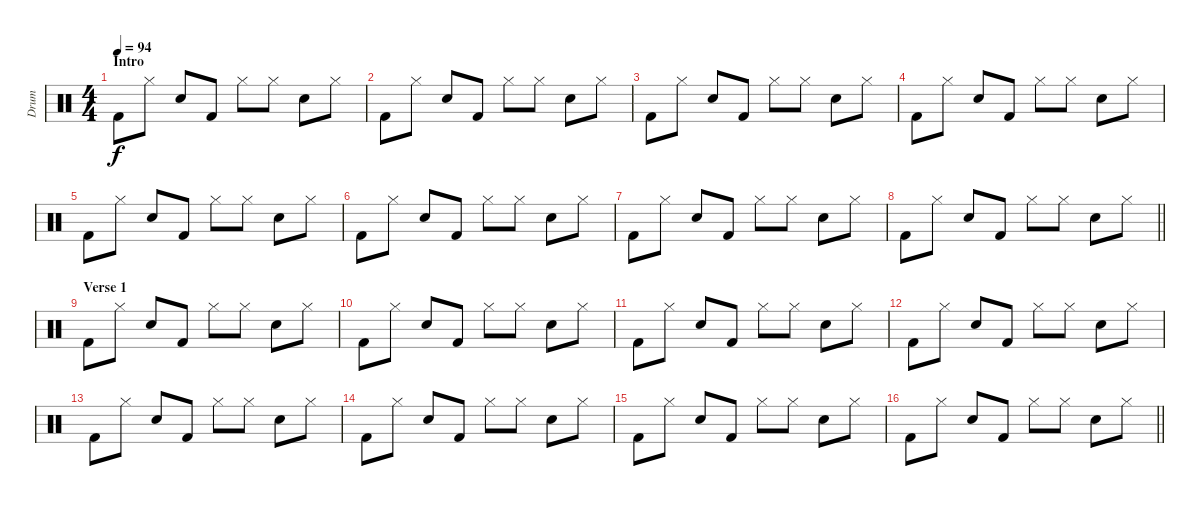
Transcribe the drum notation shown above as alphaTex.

\track ("Drum" "Drum") {instrument percussion}
\staff {score}
\articulation defaults
\ts (4 4)
\section ("" "Intro")
\tempo 94
\clef neutral
\ks c "Kick (hit) 2".8{dy f} "Hi-Hat (closed)".8 "Electric Snare (hit)".8 "Kick (hit) 2".8 "Hi-Hat (closed)".8 "Hi-Hat (closed)".8 "Electric Snare (hit)".8 "Hi-Hat (closed)".8
|
"Kick (hit) 2".8 "Hi-Hat (closed)".8 "Electric Snare (hit)".8 "Kick (hit) 2".8 "Hi-Hat (closed)".8 "Hi-Hat (closed)".8 "Electric Snare (hit)".8 "Hi-Hat (closed)".8 |
"Kick (hit) 2".8 "Hi-Hat (closed)".8 "Electric Snare (hit)".8 "Kick (hit) 2".8 "Hi-Hat (closed)".8 "Hi-Hat (closed)".8 "Electric Snare (hit)".8 "Hi-Hat (closed)".8 |
"Kick (hit) 2".8 "Hi-Hat (closed)".8 "Electric Snare (hit)".8 "Kick (hit) 2".8 "Hi-Hat (closed)".8 "Hi-Hat (closed)".8 "Electric Snare (hit)".8 "Hi-Hat (closed)".8 |
"Kick (hit) 2".8 "Hi-Hat (closed)".8 "Electric Snare (hit)".8 "Kick (hit) 2".8 "Hi-Hat (closed)".8 "Hi-Hat (closed)".8 "Electric Snare (hit)".8 "Hi-Hat (closed)".8 |
"Kick (hit) 2".8 "Hi-Hat (closed)".8 "Electric Snare (hit)".8 "Kick (hit) 2".8 "Hi-Hat (closed)".8 "Hi-Hat (closed)".8 "Electric Snare (hit)".8 "Hi-Hat (closed)".8 |
"Kick (hit) 2".8 "Hi-Hat (closed)".8 "Electric Snare (hit)".8 "Kick (hit) 2".8 "Hi-Hat (closed)".8 "Hi-Hat (closed)".8 "Electric Snare (hit)".8 "Hi-Hat (closed)".8 |
\barLineRight lightlight "Kick (hit) 2".8 "Hi-Hat (closed)".8 "Electric Snare (hit)".8 "Kick (hit) 2".8 "Hi-Hat (closed)".8 "Hi-Hat (closed)".8 "Electric Snare (hit)".8 "Hi-Hat (closed)".8
|
\section ("" "Verse 1")
"Kick (hit) 2".8 "Hi-Hat (closed)".8 "Electric Snare (hit)".8 "Kick (hit) 2".8 "Hi-Hat (closed)".8 "Hi-Hat (closed)".8 "Electric Snare (hit)".8 "Hi-Hat (closed)".8 |
"Kick (hit) 2".8 "Hi-Hat (closed)".8 "Electric Snare (hit)".8 "Kick (hit) 2".8 "Hi-Hat (closed)".8 "Hi-Hat (closed)".8 "Electric Snare (hit)".8 "Hi-Hat (closed)".8 |
"Kick (hit) 2".8 "Hi-Hat (closed)".8 "Electric Snare (hit)".8 "Kick (hit) 2".8 "Hi-Hat (closed)".8 "Hi-Hat (closed)".8 "Electric Snare (hit)".8 "Hi-Hat (closed)".8 |
"Kick (hit) 2".8 "Hi-Hat (closed)".8 "Electric Snare (hit)".8 "Kick (hit) 2".8 "Hi-Hat (closed)".8 "Hi-Hat (closed)".8 "Electric Snare (hit)".8 "Hi-Hat (closed)".8 |
"Kick (hit) 2".8 "Hi-Hat (closed)".8 "Electric Snare (hit)".8 "Kick (hit) 2".8 "Hi-Hat (closed)".8 "Hi-Hat (closed)".8 "Electric Snare (hit)".8 "Hi-Hat (closed)".8 |
"Kick (hit) 2".8 "Hi-Hat (closed)".8 "Electric Snare (hit)".8 "Kick (hit) 2".8 "Hi-Hat (closed)".8 "Hi-Hat (closed)".8 "Electric Snare (hit)".8 "Hi-Hat (closed)".8 |
"Kick (hit) 2".8 "Hi-Hat (closed)".8 "Electric Snare (hit)".8 "Kick (hit) 2".8 "Hi-Hat (closed)".8 "Hi-Hat (closed)".8 "Electric Snare (hit)".8 "Hi-Hat (closed)".8 |
\barLineRight lightlight "Kick (hit) 2".8 "Hi-Hat (closed)".8 "Electric Snare (hit)".8 "Kick (hit) 2".8 "Hi-Hat (closed)".8 "Hi-Hat (closed)".8 "Electric Snare (hit)".8 "Hi-Hat (closed)".8
